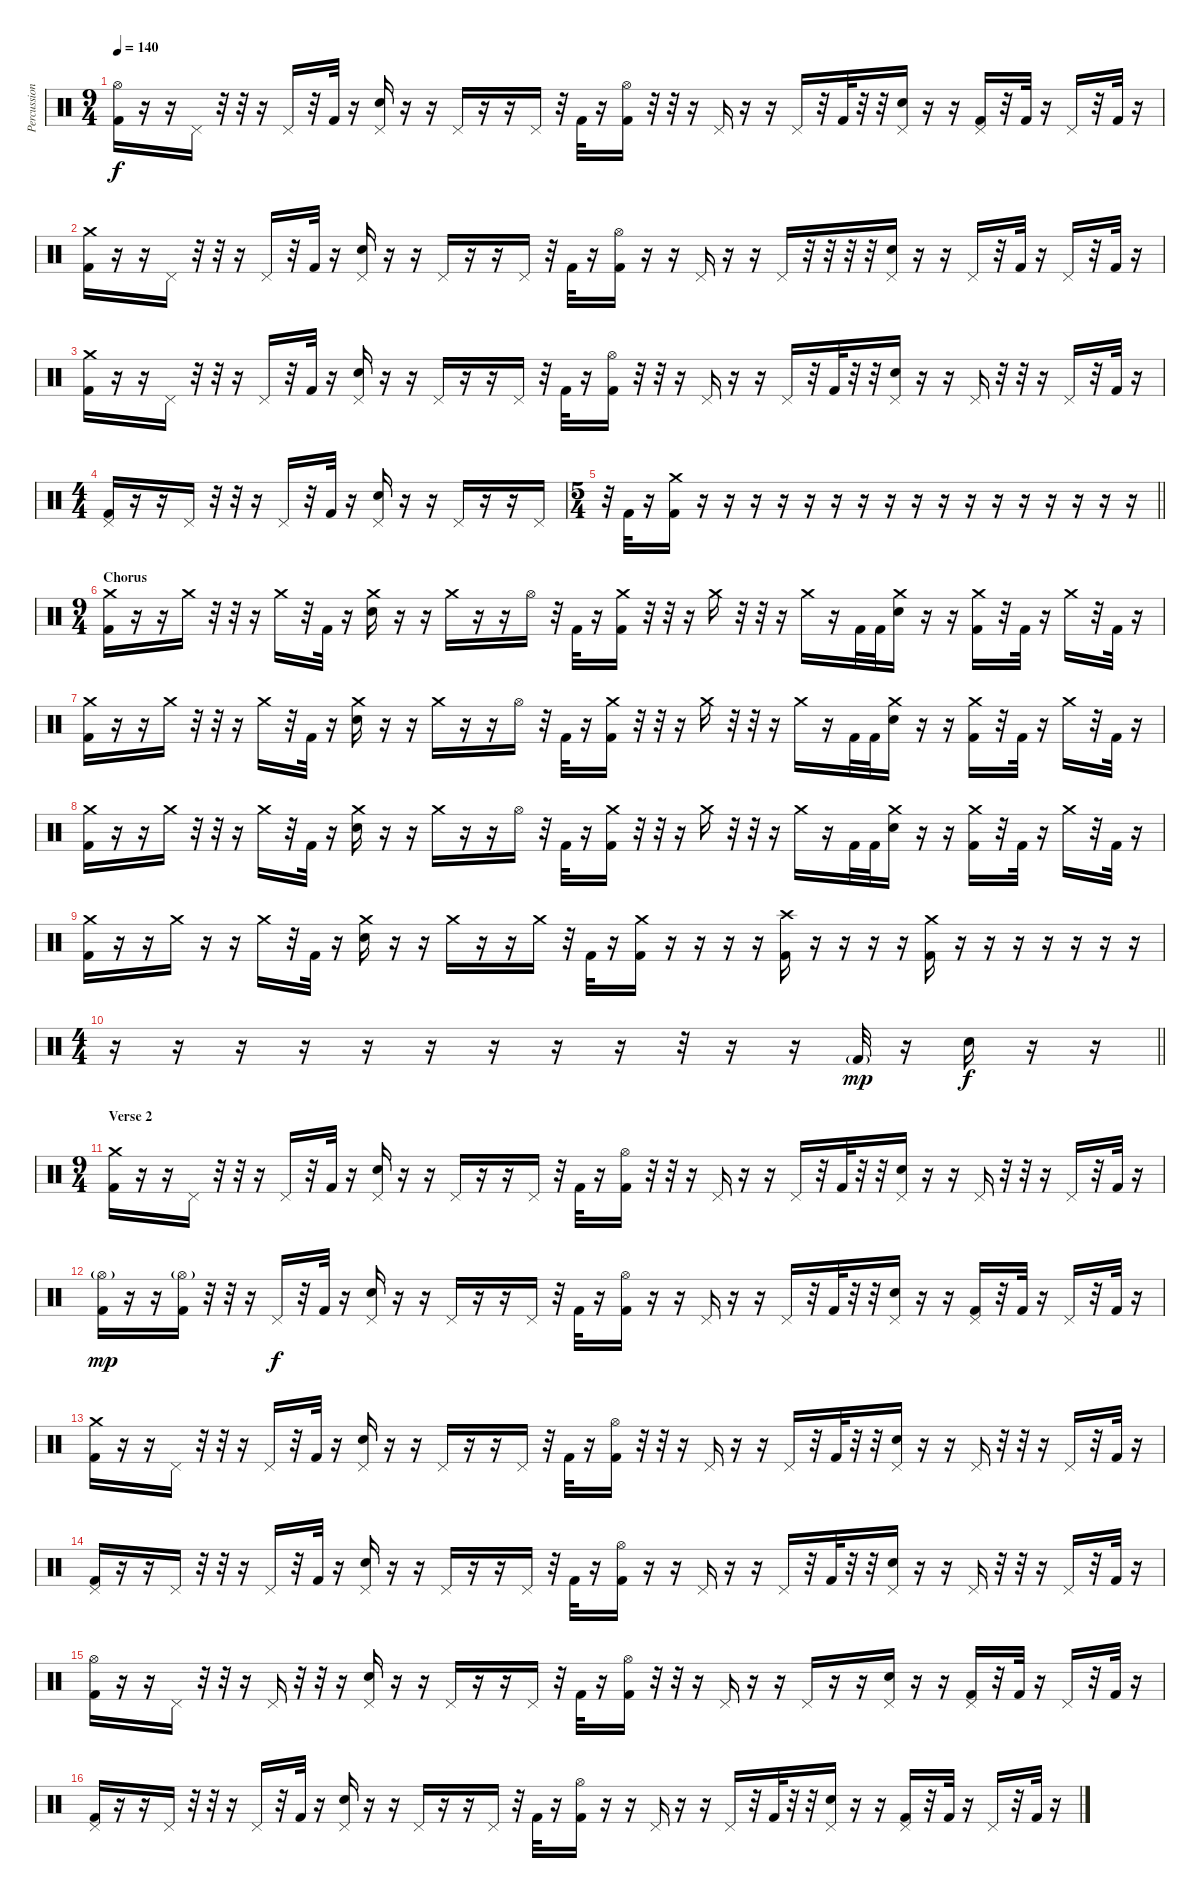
\track ("Percussion" "Percussion") {instrument percussion}
\staff {score}
\articulation defaults
\ts (9 4)
\tempo 140
\clef neutral
\ks c
("Hi-Hat (open)" "Kick (hit) 2").16{dy f} r.16 r.16 "Pedal Hi-Hat (hit)".16 r.32 r.32 r.16 "Pedal Hi-Hat (hit)".16 r.32 "Kick (hit) 2".32 r.16 ("Pedal Hi-Hat (hit)" "Electric Snare (hit)").16 r.16 r.16 "Pedal Hi-Hat (hit)".16 r.16 r.16 "Pedal Hi-Hat (hit)".16 r.32 "Kick (hit) 2".32 r.16 ("Hi-Hat (open)" "Kick (hit) 2").16 r.32 r.32 r.16 "Pedal Hi-Hat (hit)".16 r.16 r.16 "Pedal Hi-Hat (hit)".16 r.32 "Kick (hit) 2".32 r.32 r.32 ("Pedal Hi-Hat (hit)" "Electric Snare (hit)").16 r.16 r.16 ("Pedal Hi-Hat (hit)" "Kick (hit) 2").16 r.32 "Kick (hit) 2".32 r.16 "Pedal Hi-Hat (hit)".16 r.32 "Kick (hit) 2".32 r.16 |
("Crash medium (hit)" "Kick (hit) 2").16 r.16 r.16 "Pedal Hi-Hat (hit)".16 r.32 r.32 r.16 "Pedal Hi-Hat (hit)".16 r.32 "Kick (hit) 2".32 r.16 ("Pedal Hi-Hat (hit)" "Electric Snare (hit)").16 r.16 r.16 "Pedal Hi-Hat (hit)".16 r.16 r.16 "Pedal Hi-Hat (hit)".16 r.32 "Kick (hit) 2".32 r.16 ("Hi-Hat (open)" "Kick (hit) 2").16 r.16 r.16 "Pedal Hi-Hat (hit)".16 r.16 r.16 "Pedal Hi-Hat (hit)".16 r.32 r.32 r.32 r.32 ("Pedal Hi-Hat (hit)" "Electric Snare (hit)").16 r.16 r.16 "Pedal Hi-Hat (hit)".16 r.32 "Kick (hit) 2".32 r.16 "Pedal Hi-Hat (hit)".16 r.32 "Kick (hit) 2".32 r.16 |
("Crash medium (hit)" "Kick (hit) 2").16 r.16 r.16 "Pedal Hi-Hat (hit)".16 r.32 r.32 r.16 "Pedal Hi-Hat (hit)".16 r.32 "Kick (hit) 2".32 r.16 ("Pedal Hi-Hat (hit)" "Electric Snare (hit)").16 r.16 r.16 "Pedal Hi-Hat (hit)".16 r.16 r.16 "Pedal Hi-Hat (hit)".16 r.32 "Kick (hit) 2".32 r.16 ("Hi-Hat (open)" "Kick (hit) 2").16 r.32 r.32 r.16 "Pedal Hi-Hat (hit)".16 r.16 r.16 "Pedal Hi-Hat (hit)".16 r.32 "Kick (hit) 2".32 r.32 r.32 ("Pedal Hi-Hat (hit)" "Electric Snare (hit)").16 r.16 r.16 "Pedal Hi-Hat (hit)".16 r.32 r.32 r.16 "Pedal Hi-Hat (hit)".16 r.32 "Kick (hit) 2".32 r.16 |
\ts (4 4)
("Pedal Hi-Hat (hit)" "Kick (hit) 2").16 r.16 r.16 "Pedal Hi-Hat (hit)".16 r.32 r.32 r.16 "Pedal Hi-Hat (hit)".16 r.32 "Kick (hit) 2".32 r.16 ("Pedal Hi-Hat (hit)" "Electric Snare (hit)").16 r.16 r.16 "Pedal Hi-Hat (hit)".16 r.16 r.16 "Pedal Hi-Hat (hit)".16 |
\ts (5 4)
\barLineRight lightlight
r.32 "Kick (hit) 2".32 r.16 ("Crash medium (hit)" "Kick (hit) 2").16 r.16 r.16 r.16 r.16 r.16 r.16 r.16 r.16 r.16 r.16 r.16 r.16 r.16 r.16 r.16 r.16 r.16 |
\ts (9 4)
\section ("" "Chorus")
("Crash medium (hit)" "Kick (hit) 2").16 r.16 r.16 "Crash medium (hit)".16 r.32 r.32 r.16 "Crash medium (hit)".16 r.32 "Kick (hit) 2".32 r.16 ("Crash medium (hit)" "Electric Snare (hit)").16 r.16 r.16 "Crash medium (hit)".16 r.16 r.16 "Hi-Hat (open)".16 r.32 "Kick (hit) 2".32 r.16 ("Crash medium (hit)" "Kick (hit) 2").16 r.32 r.32 r.16 "Crash medium (hit)".16 r.32 r.32 r.16 "Crash medium (hit)".16 r.16 "Kick (hit) 2".32 "Kick (hit) 2".32 ("Crash medium (hit)" "Electric Snare (hit)").16 r.16 r.16 ("Crash medium (hit)" "Kick (hit) 2").16 r.32 "Kick (hit) 2".32 r.16 "Crash medium (hit)".16 r.32 "Kick (hit) 2".32 r.16 |
("Crash medium (hit)" "Kick (hit) 2").16 r.16 r.16 "Crash medium (hit)".16 r.32 r.32 r.16 "Crash medium (hit)".16 r.32 "Kick (hit) 2".32 r.16 ("Crash medium (hit)" "Electric Snare (hit)").16 r.16 r.16 "Crash medium (hit)".16 r.16 r.16 "Hi-Hat (open)".16 r.32 "Kick (hit) 2".32 r.16 ("Crash medium (hit)" "Kick (hit) 2").16 r.32 r.32 r.16 "Crash medium (hit)".16 r.32 r.32 r.16 "Crash medium (hit)".16 r.16 "Kick (hit) 2".32 "Kick (hit) 2".32 ("Crash medium (hit)" "Electric Snare (hit)").16 r.16 r.16 ("Crash medium (hit)" "Kick (hit) 2").16 r.32 "Kick (hit) 2".32 r.16 "Crash medium (hit)".16 r.32 "Kick (hit) 2".32 r.16 |
("Crash medium (hit)" "Kick (hit) 2").16 r.16 r.16 "Crash medium (hit)".16 r.32 r.32 r.16 "Crash medium (hit)".16 r.32 "Kick (hit) 2".32 r.16 ("Crash medium (hit)" "Electric Snare (hit)").16 r.16 r.16 "Crash medium (hit)".16 r.16 r.16 "Hi-Hat (open)".16 r.32 "Kick (hit) 2".32 r.16 ("Crash medium (hit)" "Kick (hit) 2").16 r.32 r.32 r.16 "Crash medium (hit)".16 r.32 r.32 r.16 "Crash medium (hit)".16 r.16 "Kick (hit) 2".32 "Kick (hit) 2".32 ("Crash medium (hit)" "Electric Snare (hit)").16 r.16 r.16 ("Crash medium (hit)" "Kick (hit) 2").16 r.32 "Kick (hit) 2".32 r.16 "Crash medium (hit)".16 r.32 "Kick (hit) 2".32 r.16 |
("Crash medium (hit)" "Kick (hit) 2").16 r.16 r.16 "Crash medium (hit)".16 r.16 r.16 "Crash medium (hit)".16 r.32 "Kick (hit) 2".32 r.16 ("Crash medium (hit)" "Electric Snare (hit)").16 r.16 r.16 "Crash medium (hit)".16 r.16 r.16 "Crash medium (hit)".16 r.32 "Kick (hit) 2".32 r.16 ("Crash medium (hit)" "Kick (hit) 2").16 r.16 r.16 r.16 r.16 ("Crash high (hit)" "Kick (hit) 2").16 r.16 r.16 r.16 r.16 ("Crash medium (hit)" "Kick (hit) 2").16 r.16 r.16 r.16 r.16 r.16 r.16 r.16 |
\ts (4 4)
\barLineRight lightlight
r.16 r.16 r.16 r.16 r.16 r.16 r.16 r.16 r.16 r.32 r.16 r.16 "Kick (hit) 2"{g}.32{dy mp} r.16 "Electric Snare (hit)".16{dy f} r.16 r.16 |
\ts (9 4)
\section ("" "Verse 2")
("Crash medium (hit)" "Kick (hit) 2").16 r.16 r.16 "Pedal Hi-Hat (hit)".16 r.32 r.32 r.16 "Pedal Hi-Hat (hit)".16 r.32 "Kick (hit) 2".32 r.16 ("Pedal Hi-Hat (hit)" "Electric Snare (hit)").16 r.16 r.16 "Pedal Hi-Hat (hit)".16 r.16 r.16 "Pedal Hi-Hat (hit)".16 r.32 "Kick (hit) 2".32 r.16 ("Hi-Hat (open)" "Kick (hit) 2").16 r.32 r.32 r.16 "Pedal Hi-Hat (hit)".16 r.16 r.16 "Pedal Hi-Hat (hit)".16 r.32 "Kick (hit) 2".32 r.32 r.32 ("Pedal Hi-Hat (hit)" "Electric Snare (hit)").16 r.16 r.16 "Pedal Hi-Hat (hit)".16 r.32 r.32 r.16 "Pedal Hi-Hat (hit)".16 r.32 "Kick (hit) 2".32 r.16 |
("Hi-Hat (open)"{g} "Kick (hit) 2").16{dy mp} r.16 r.16 ("Hi-Hat (open)"{g} "Kick (hit) 2").16 r.32 r.32 r.16 "Pedal Hi-Hat (hit)".16{dy f} r.32 "Kick (hit) 2".32 r.16 ("Pedal Hi-Hat (hit)" "Electric Snare (hit)").16 r.16 r.16 "Pedal Hi-Hat (hit)".16 r.16 r.16 "Pedal Hi-Hat (hit)".16 r.32 "Kick (hit) 2".32 r.16 ("Hi-Hat (open)" "Kick (hit) 2").16 r.16 r.16 "Pedal Hi-Hat (hit)".16 r.16 r.16 "Pedal Hi-Hat (hit)".16 r.32 "Kick (hit) 2".32 r.32 r.32 ("Pedal Hi-Hat (hit)" "Electric Snare (hit)").16 r.16 r.16 ("Pedal Hi-Hat (hit)" "Kick (hit) 2").16 r.32 "Kick (hit) 2".32 r.16 "Pedal Hi-Hat (hit)".16 r.32 "Kick (hit) 2".32 r.16 |
("Crash medium (hit)" "Kick (hit) 2").16 r.16 r.16 "Pedal Hi-Hat (hit)".16 r.32 r.32 r.16 "Pedal Hi-Hat (hit)".16 r.32 "Kick (hit) 2".32 r.16 ("Pedal Hi-Hat (hit)" "Electric Snare (hit)").16 r.16 r.16 "Pedal Hi-Hat (hit)".16 r.16 r.16 "Pedal Hi-Hat (hit)".16 r.32 "Kick (hit) 2".32 r.16 ("Hi-Hat (open)" "Kick (hit) 2").16 r.32 r.32 r.16 "Pedal Hi-Hat (hit)".16 r.16 r.16 "Pedal Hi-Hat (hit)".16 r.32 "Kick (hit) 2".32 r.32 r.32 ("Pedal Hi-Hat (hit)" "Electric Snare (hit)").16 r.16 r.16 "Pedal Hi-Hat (hit)".16 r.32 r.32 r.16 "Pedal Hi-Hat (hit)".16 r.32 "Kick (hit) 2".32 r.16 |
("Pedal Hi-Hat (hit)" "Kick (hit) 2").16 r.16 r.16 "Pedal Hi-Hat (hit)".16 r.32 r.32 r.16 "Pedal Hi-Hat (hit)".16 r.32 "Kick (hit) 2".32 r.16 ("Pedal Hi-Hat (hit)" "Electric Snare (hit)").16 r.16 r.16 "Pedal Hi-Hat (hit)".16 r.16 r.16 "Pedal Hi-Hat (hit)".16 r.32 "Kick (hit) 2".32 r.16 ("Hi-Hat (open)" "Kick (hit) 2").16 r.16 r.16 "Pedal Hi-Hat (hit)".16 r.16 r.16 "Pedal Hi-Hat (hit)".16 r.32 "Kick (hit) 2".32 r.32 r.32 ("Pedal Hi-Hat (hit)" "Electric Snare (hit)").16 r.16 r.16 "Pedal Hi-Hat (hit)".16 r.32 r.32 r.16 "Pedal Hi-Hat (hit)".16 r.32 "Kick (hit) 2".32 r.16 |
("Hi-Hat (open)" "Kick (hit) 2").16 r.16 r.16 "Pedal Hi-Hat (hit)".16 r.32 r.32 r.16 "Pedal Hi-Hat (hit)".16 r.32 r.32 r.16 ("Pedal Hi-Hat (hit)" "Electric Snare (hit)").16 r.16 r.16 "Pedal Hi-Hat (hit)".16 r.16 r.16 "Pedal Hi-Hat (hit)".16 r.32 "Kick (hit) 2".32 r.16 ("Hi-Hat (open)" "Kick (hit) 2").16 r.32 r.32 r.16 "Pedal Hi-Hat (hit)".16 r.16 r.16 "Pedal Hi-Hat (hit)".16 r.16 r.16 ("Pedal Hi-Hat (hit)" "Electric Snare (hit)").16 r.16 r.16 ("Pedal Hi-Hat (hit)" "Kick (hit) 2").16 r.32 "Kick (hit) 2".32 r.16 "Pedal Hi-Hat (hit)".16 r.32 "Kick (hit) 2".32 r.16 |
("Pedal Hi-Hat (hit)" "Kick (hit) 2").16 r.16 r.16 "Pedal Hi-Hat (hit)".16 r.32 r.32 r.16 "Pedal Hi-Hat (hit)".16 r.32 "Kick (hit) 2".32 r.16 ("Pedal Hi-Hat (hit)" "Electric Snare (hit)").16 r.16 r.16 "Pedal Hi-Hat (hit)".16 r.16 r.16 "Pedal Hi-Hat (hit)".16 r.32 "Kick (hit) 2".32 r.16 ("Hi-Hat (open)" "Kick (hit) 2").16 r.16 r.16 "Pedal Hi-Hat (hit)".16 r.16 r.16 "Pedal Hi-Hat (hit)".16 r.32 "Kick (hit) 2".32 r.32 r.32 ("Pedal Hi-Hat (hit)" "Electric Snare (hit)").16 r.16 r.16 ("Pedal Hi-Hat (hit)" "Kick (hit) 2").16 r.32 "Kick (hit) 2".32 r.16 "Pedal Hi-Hat (hit)".16 r.32 "Kick (hit) 2".32 r.16
